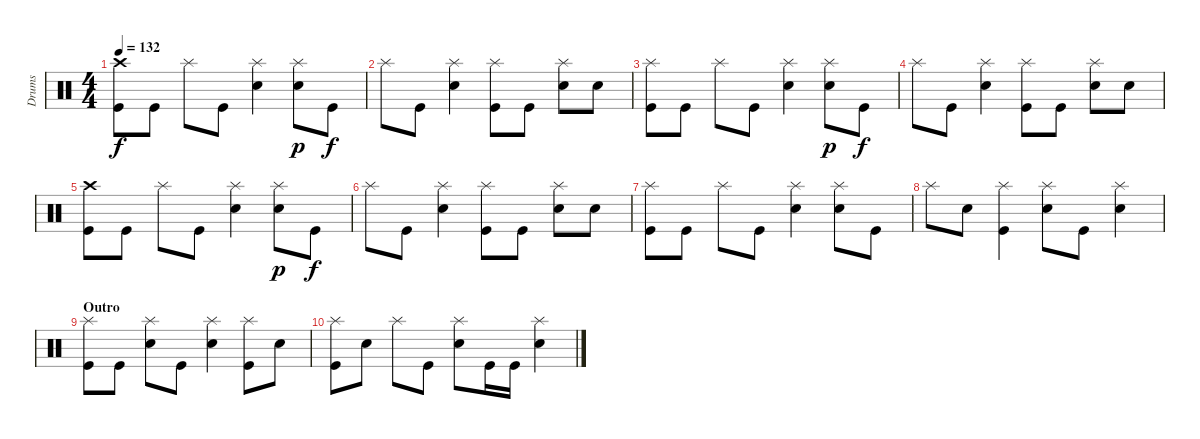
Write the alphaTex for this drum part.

\track ("Drums" "Drums") {instrument percussion}
\staff {score}
\articulation defaults
\ts (4 4)
\tempo 132
\clef neutral
\ks c
("Crash high (hit)" "Kick (hit)").8{dy f} "Kick (hit)".8 "Splash (hit)".8 "Kick (hit)".8 ("Snare (hit) 2" "Splash (hit)").4 ("Snare (hit) 2" "Splash (hit)").8{dy p} "Kick (hit)".8{dy f} |
"Splash (hit)".8 "Kick (hit)".8 ("Snare (hit) 2" "Splash (hit)").4 ("Splash (hit)" "Kick (hit)").8 "Kick (hit)".8 ("Snare (hit) 2" "Splash (hit)").8 "Snare (hit) 2".8 |
("Splash (hit)" "Kick (hit)").8 "Kick (hit)".8 "Splash (hit)".8 "Kick (hit)".8 ("Snare (hit) 2" "Splash (hit)").4 ("Snare (hit) 2" "Splash (hit)").8{dy p} "Kick (hit)".8{dy f} |
"Splash (hit)".8 "Kick (hit)".8 ("Snare (hit) 2" "Splash (hit)").4 ("Splash (hit)" "Kick (hit)").8 "Kick (hit)".8 ("Snare (hit) 2" "Splash (hit)").8 "Snare (hit) 2".8 |
("Crash high (hit)" "Kick (hit)").8 "Kick (hit)".8 "Splash (hit)".8 "Kick (hit)".8 ("Snare (hit) 2" "Splash (hit)").4 ("Snare (hit) 2" "Splash (hit)").8{dy p} "Kick (hit)".8{dy f} |
"Splash (hit)".8 "Kick (hit)".8 ("Snare (hit) 2" "Splash (hit)").4 ("Splash (hit)" "Kick (hit)").8 "Kick (hit)".8 ("Snare (hit) 2" "Splash (hit)").8 "Snare (hit) 2".8 |
("Splash (hit)" "Kick (hit)").8 "Kick (hit)".8 "Splash (hit)".8 "Kick (hit)".8 ("Snare (hit) 2" "Splash (hit)").4 ("Snare (hit) 2" "Splash (hit)").8 "Kick (hit)".8 |
"Splash (hit)".8 "Snare (hit) 2".8 ("Splash (hit)" "Kick (hit)").4 ("Snare (hit) 2" "Splash (hit)").8 "Kick (hit)".8 ("Snare (hit) 2" "Splash (hit)").4 |
\section ("" "Outro")
("Splash (hit)" "Kick (hit)").8 "Kick (hit)".8 ("Snare (hit) 2" "Splash (hit)").8 "Kick (hit)".8 ("Snare (hit) 2" "Splash (hit)").4 ("Splash (hit)" "Kick (hit)").8 "Snare (hit) 2".8 |
("Splash (hit)" "Kick (hit)").8 "Snare (hit) 2".8 "Splash (hit)".8 "Kick (hit)".8 ("Snare (hit) 2" "Splash (hit)").8 "Kick (hit)".16 "Kick (hit)".16 ("Snare (hit) 2" "Splash (hit)").4
